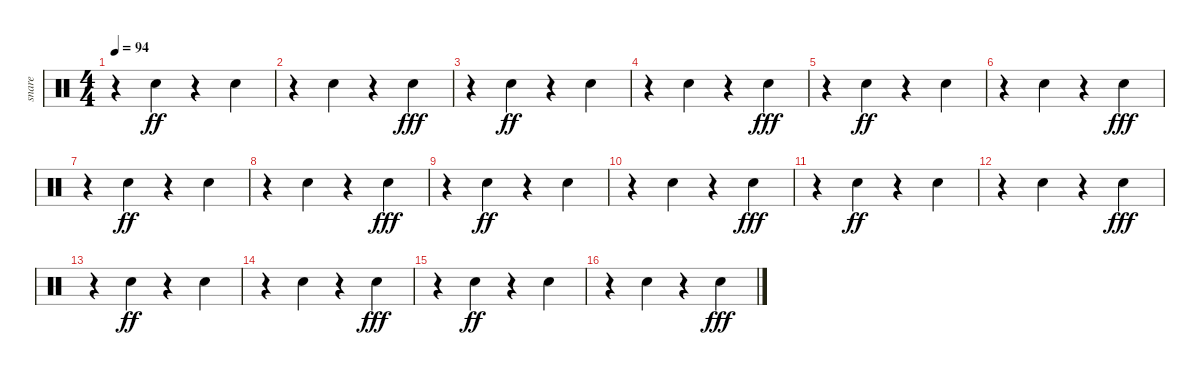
\track ("snare" "snare") {instrument percussion}
\staff {score}
\articulation defaults
\ts (4 4)
\tempo 94
\clef neutral
\ks c
r.4{dy fff} "Electric Snare (hit)".4{dy ff} r.4 "Electric Snare (hit)".4 |
r.4 "Electric Snare (hit)".4 r.4 "Electric Snare (hit)".4{dy fff} |
r.4 "Electric Snare (hit)".4{dy ff} r.4 "Electric Snare (hit)".4 |
r.4 "Electric Snare (hit)".4 r.4 "Electric Snare (hit)".4{dy fff} |
r.4 "Electric Snare (hit)".4{dy ff} r.4 "Electric Snare (hit)".4 |
r.4 "Electric Snare (hit)".4 r.4 "Electric Snare (hit)".4{dy fff} |
r.4 "Electric Snare (hit)".4{dy ff} r.4 "Electric Snare (hit)".4 |
r.4 "Electric Snare (hit)".4 r.4 "Electric Snare (hit)".4{dy fff} |
r.4 "Electric Snare (hit)".4{dy ff} r.4 "Electric Snare (hit)".4 |
r.4 "Electric Snare (hit)".4 r.4 "Electric Snare (hit)".4{dy fff} |
r.4 "Electric Snare (hit)".4{dy ff volume 15} r.4 "Electric Snare (hit)".4{volume 15} |
r.4 "Electric Snare (hit)".4{volume 14} r.4 "Electric Snare (hit)".4{dy fff volume 12} |
r.4 "Electric Snare (hit)".4{dy ff volume 10} r.4 "Electric Snare (hit)".4{volume 8} |
r.4 "Electric Snare (hit)".4{volume 7} r.4 "Electric Snare (hit)".4{dy fff volume 7} |
r.4 "Electric Snare (hit)".4{dy ff volume 6} r.4 "Electric Snare (hit)".4{volume 6} |
r.4 "Electric Snare (hit)".4{volume 4} r.4 "Electric Snare (hit)".4{dy fff volume 4}
